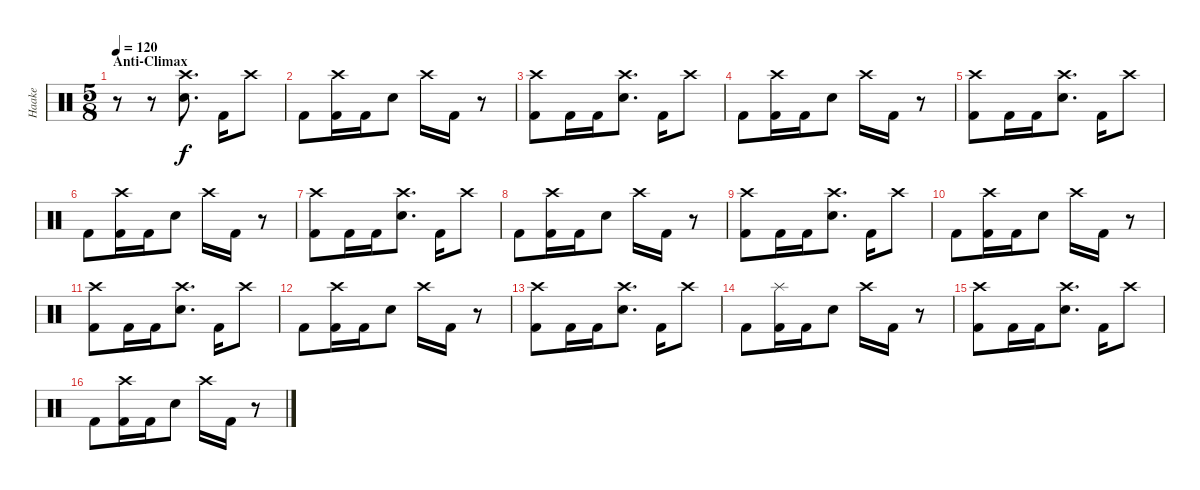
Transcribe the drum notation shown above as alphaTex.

\track ("Haake" "Haake") {instrument percussion}
\staff {score}
\articulation defaults
\ts (5 8)
\section ("" "Anti-Climax")
\tempo 120
\clef neutral
\ks c
r.8{dy f} r.8 ("Crash high (hit)" "Electric Snare (hit)").8{d} "Kick (hit) 2".16 "Crash high (hit)".8 |
"Kick (hit) 2".8 ("Crash high (hit)" "Kick (hit) 2").16 "Kick (hit) 2".16 "Electric Snare (hit)".8 "Crash high (hit)".16 "Kick (hit) 2".16 r.8 |
("Crash high (hit)" "Kick (hit) 2").8 "Kick (hit) 2".16 "Kick (hit) 2".16 ("Crash high (hit)" "Electric Snare (hit)").8{d} "Kick (hit) 2".16 "Crash high (hit)".8 |
"Kick (hit) 2".8 ("Crash high (hit)" "Kick (hit) 2").16 "Kick (hit) 2".16 "Electric Snare (hit)".8 "Crash high (hit)".16 "Kick (hit) 2".16 r.8 |
("Crash high (hit)" "Kick (hit) 2").8 "Kick (hit) 2".16 "Kick (hit) 2".16 ("Crash high (hit)" "Electric Snare (hit)").8{d} "Kick (hit) 2".16 "Crash high (hit)".8 |
"Kick (hit) 2".8 ("Crash high (hit)" "Kick (hit) 2").16 "Kick (hit) 2".16 "Electric Snare (hit)".8 "Crash high (hit)".16 "Kick (hit) 2".16 r.8 |
("Crash high (hit)" "Kick (hit) 2").8 "Kick (hit) 2".16 "Kick (hit) 2".16 ("Crash high (hit)" "Electric Snare (hit)").8{d} "Kick (hit) 2".16 "Crash high (hit)".8 |
"Kick (hit) 2".8 ("Crash high (hit)" "Kick (hit) 2").16 "Kick (hit) 2".16 "Electric Snare (hit)".8 "Crash high (hit)".16 "Kick (hit) 2".16 r.8 |
("Crash high (hit)" "Kick (hit) 2").8 "Kick (hit) 2".16 "Kick (hit) 2".16 ("Crash high (hit)" "Electric Snare (hit)").8{d} "Kick (hit) 2".16 "Crash high (hit)".8 |
"Kick (hit) 2".8 ("Crash high (hit)" "Kick (hit) 2").16 "Kick (hit) 2".16 "Electric Snare (hit)".8 "Crash high (hit)".16 "Kick (hit) 2".16 r.8 |
("Crash high (hit)" "Kick (hit) 2").8 "Kick (hit) 2".16 "Kick (hit) 2".16 ("Crash high (hit)" "Electric Snare (hit)").8{d} "Kick (hit) 2".16 "Crash high (hit)".8 |
"Kick (hit) 2".8 ("Crash high (hit)" "Kick (hit) 2").16 "Kick (hit) 2".16 "Electric Snare (hit)".8 "Crash high (hit)".16 "Kick (hit) 2".16 r.8 |
("Crash high (hit)" "Kick (hit) 2").8 "Kick (hit) 2".16 "Kick (hit) 2".16 ("Crash high (hit)" "Electric Snare (hit)").8{d} "Kick (hit) 2".16 "Crash high (hit)".8 |
"Kick (hit) 2".8 ("Splash (hit)" "Kick (hit) 2").16 "Kick (hit) 2".16 "Electric Snare (hit)".8 "Crash high (hit)".16 "Kick (hit) 2".16 r.8 |
("Crash high (hit)" "Kick (hit) 2").8 "Kick (hit) 2".16 "Kick (hit) 2".16 ("Crash high (hit)" "Electric Snare (hit)").8{d} "Kick (hit) 2".16 "Crash high (hit)".8 |
"Kick (hit) 2".8 ("Crash high (hit)" "Kick (hit) 2").16 "Kick (hit) 2".16 "Electric Snare (hit)".8 "Crash high (hit)".16 "Kick (hit) 2".16 r.8
